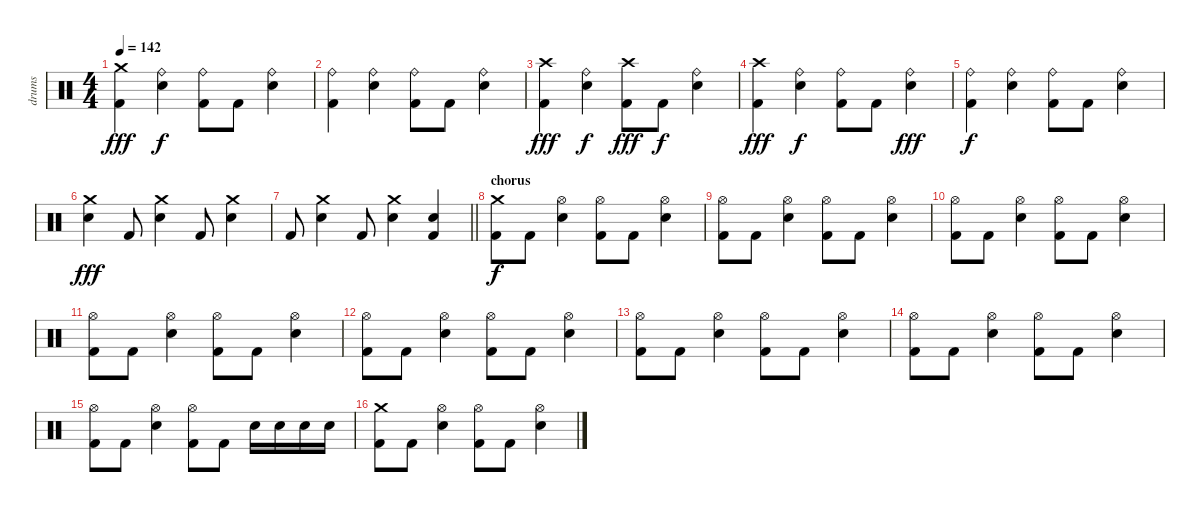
\track ("drums" "drums") {instrument percussion}
\staff {score}
\articulation defaults
\ts (4 4)
\tempo 142
\clef neutral
\ks c
("Crash medium (hit)" "Kick (hit) 2").4{dy fff} ("Ride (bell)" "Electric Snare (hit)").4{dy f} ("Ride (bell)" "Kick (hit) 2").8 "Kick (hit) 2".8 ("Ride (bell)" "Electric Snare (hit)").4 |
("Ride (bell)" "Kick (hit) 2").4 ("Ride (bell)" "Electric Snare (hit)").4 ("Ride (bell)" "Kick (hit) 2").8 "Kick (hit) 2".8 ("Ride (bell)" "Electric Snare (hit)").4 |
("Crash high (hit)" "Kick (hit) 2").4{dy fff} ("Ride (bell)" "Electric Snare (hit)").4{dy f} ("Crash high (hit)" "Kick (hit) 2").8{dy fff} "Kick (hit) 2".8{dy f} ("Ride (bell)" "Electric Snare (hit)").4 |
("Crash high (hit)" "Kick (hit) 2").4{dy fff} ("Ride (bell)" "Electric Snare (hit)").4{dy f} ("Ride (bell)" "Kick (hit) 2").8 "Kick (hit) 2".8 ("Ride (bell)" "Electric Snare (hit)").4{dy fff} |
("Ride (bell)" "Kick (hit) 2").4{dy f} ("Ride (bell)" "Electric Snare (hit)").4 ("Ride (bell)" "Kick (hit) 2").8 "Kick (hit) 2".8 ("Ride (bell)" "Electric Snare (hit)").4 |
("Crash medium (hit)" "Electric Snare (hit)").4{dy fff} "Kick (hit) 2".8 ("Crash medium (hit)" "Electric Snare (hit)").4 "Kick (hit) 2".8 ("Crash medium (hit)" "Electric Snare (hit)").4 |
\barLineRight lightlight "Kick (hit) 2".8
("Crash medium (hit)" "Electric Snare (hit)").4 "Kick (hit) 2".8 ("Crash medium (hit)" "Electric Snare (hit)").4 ("Electric Snare (hit)" "Kick (hit) 2").4 |
\section ("" "chorus")
("Crash medium (hit)" "Kick (hit) 2").8{dy f volume 12} "Kick (hit) 2".8 ("Hi-Hat (open)" "Electric Snare (hit)").4 ("Hi-Hat (open)" "Kick (hit) 2").8 "Kick (hit) 2".8 ("Hi-Hat (open)" "Electric Snare (hit)").4 |
("Hi-Hat (open)" "Kick (hit) 2").8 "Kick (hit) 2".8 ("Hi-Hat (open)" "Electric Snare (hit)").4 ("Hi-Hat (open)" "Kick (hit) 2").8 "Kick (hit) 2".8 ("Hi-Hat (open)" "Electric Snare (hit)").4 |
("Hi-Hat (open)" "Kick (hit) 2").8 "Kick (hit) 2".8 ("Hi-Hat (open)" "Electric Snare (hit)").4 ("Hi-Hat (open)" "Kick (hit) 2").8 "Kick (hit) 2".8 ("Hi-Hat (open)" "Electric Snare (hit)").4 |
("Hi-Hat (open)" "Kick (hit) 2").8 "Kick (hit) 2".8 ("Hi-Hat (open)" "Electric Snare (hit)").4 ("Hi-Hat (open)" "Kick (hit) 2").8 "Kick (hit) 2".8 ("Hi-Hat (open)" "Electric Snare (hit)").4 |
("Hi-Hat (open)" "Kick (hit) 2").8 "Kick (hit) 2".8 ("Hi-Hat (open)" "Electric Snare (hit)").4 ("Hi-Hat (open)" "Kick (hit) 2").8 "Kick (hit) 2".8 ("Hi-Hat (open)" "Electric Snare (hit)").4 |
("Hi-Hat (open)" "Kick (hit) 2").8 "Kick (hit) 2".8 ("Hi-Hat (open)" "Electric Snare (hit)").4 ("Hi-Hat (open)" "Kick (hit) 2").8 "Kick (hit) 2".8 ("Hi-Hat (open)" "Electric Snare (hit)").4 |
("Hi-Hat (open)" "Kick (hit) 2").8 "Kick (hit) 2".8 ("Hi-Hat (open)" "Electric Snare (hit)").4 ("Hi-Hat (open)" "Kick (hit) 2").8 "Kick (hit) 2".8 ("Hi-Hat (open)" "Electric Snare (hit)").4 |
("Hi-Hat (open)" "Kick (hit) 2").8 "Kick (hit) 2".8 ("Hi-Hat (open)" "Electric Snare (hit)").4 ("Hi-Hat (open)" "Kick (hit) 2").8 "Kick (hit) 2".8 "Electric Snare (hit)".16 "Electric Snare (hit)".16 "Electric Snare (hit)".16 "Electric Snare (hit)".16 |
("Crash medium (hit)" "Kick (hit) 2").8 "Kick (hit) 2".8 ("Hi-Hat (open)" "Electric Snare (hit)").4 ("Hi-Hat (open)" "Kick (hit) 2").8 "Kick (hit) 2".8 ("Hi-Hat (open)" "Electric Snare (hit)").4
